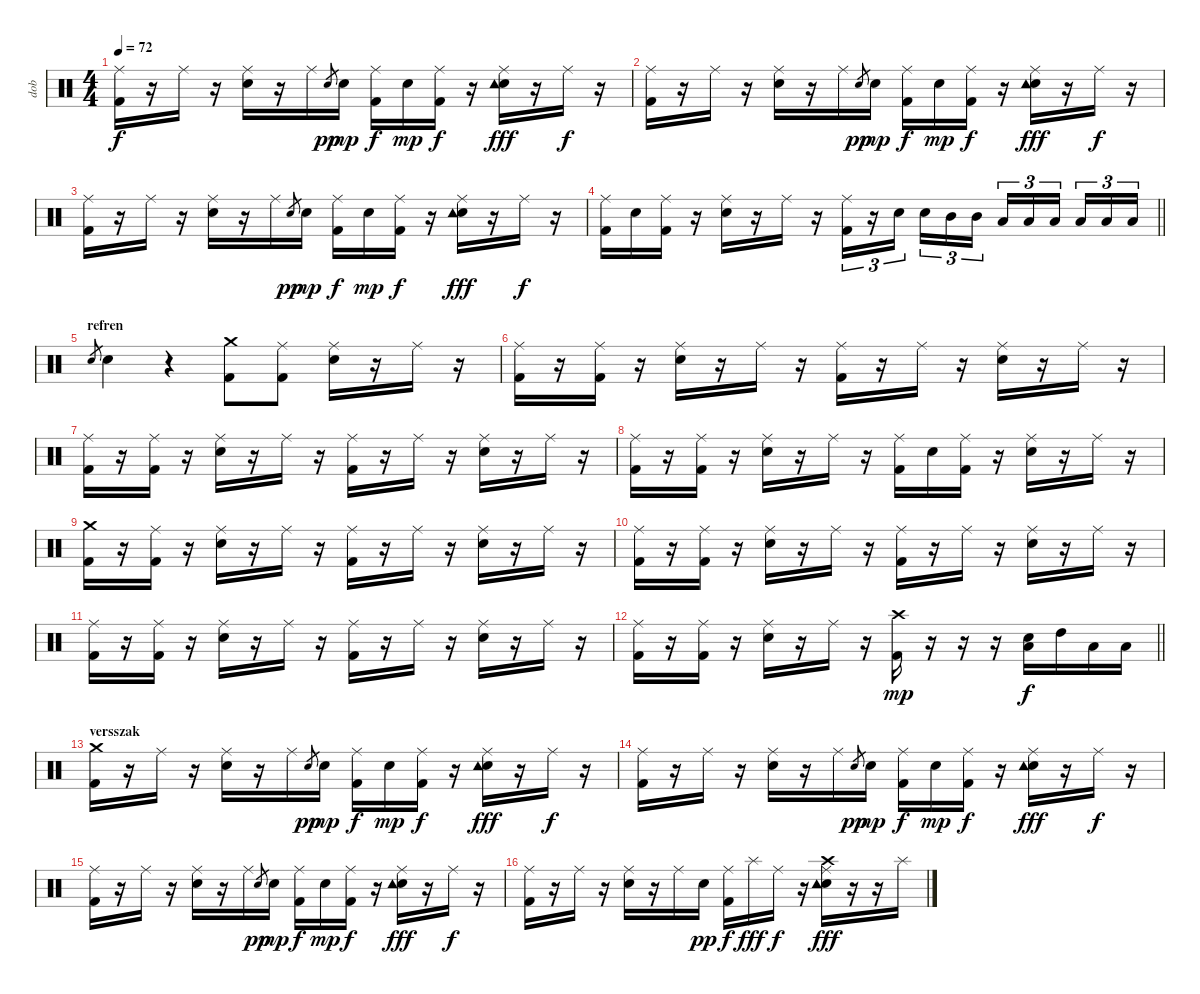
\track ("dob" "dob") {instrument percussion}
\staff {score}
\articulation defaults
\ts (4 4)
\tempo 72
\clef neutral
\ks c
("Kick (hit) 2" "Ride (middle)").16{dy f} r.16 "Ride (middle)".16 r.16 ("Ride (middle)" "Snare (hit) 2").16 r.16 "Ride (middle)".16 "Snare (hit) 2".8{gr dy pp} "Snare (hit) 2".16{dy mp} ("Ride (middle)" "Kick (hit) 2").16{dy f} "Snare (hit) 2".16{dy mp} ("Ride (middle)" "Kick (hit) 2").16{dy f} r.16 ("Ride (middle)" "Snare (hit) 2" "Tambourine (hit)").16{dy fff} r.16 "Ride (middle)".16{dy f} r.16 |
("Kick (hit) 2" "Ride (middle)").16 r.16 "Ride (middle)".16 r.16 ("Ride (middle)" "Snare (hit) 2").16 r.16 "Ride (middle)".16 "Snare (hit) 2".8{gr dy pp} "Snare (hit) 2".16{dy mp} ("Ride (middle)" "Kick (hit) 2").16{dy f} "Snare (hit) 2".16{dy mp} ("Ride (middle)" "Kick (hit) 2").16{dy f} r.16 ("Ride (middle)" "Snare (hit) 2" "Tambourine (hit)").16{dy fff} r.16 "Ride (middle)".16{dy f} r.16 |
("Kick (hit) 2" "Ride (middle)").16 r.16 "Ride (middle)".16 r.16 ("Ride (middle)" "Snare (hit) 2").16 r.16 "Ride (middle)".16 "Snare (hit) 2".8{gr dy pp} "Snare (hit) 2".16{dy mp} ("Ride (middle)" "Kick (hit) 2").16{dy f} "Snare (hit) 2".16{dy mp} ("Ride (middle)" "Kick (hit) 2").16{dy f} r.16 ("Ride (middle)" "Snare (hit) 2" "Tambourine (hit)").16{dy fff} r.16 "Ride (middle)".16{dy f} r.16 |
\barLineRight lightlight
("Kick (hit) 2" "Ride (middle)").16 "Snare (hit) 2".16 ("Ride (middle)" "Kick (hit) 2").16 r.16 ("Ride (middle)" "Snare (hit) 2").16 r.16 "Ride (middle)".16 r.16 ("Ride (middle)" "Kick (hit) 2").16{tu (3 2)} r.16{tu (3 2)} "Snare (hit) 2".16{tu (3 2) beam splitsecondary} "Snare (hit) 2".16{tu (3 2)} "Mid Tom (hit)".16{tu (3 2)} "Mid Tom (hit)".16{tu (3 2)} "Low Tom (hit)".16{tu (3 2)} "Low Floor Tom (hit)".16{tu (3 2)} "Low Floor Tom (hit)".16{tu (3 2) beam splitsecondary} "Low Floor Tom (hit)".16{tu (3 2)} "Low Floor Tom (hit)".16{tu (3 2)} "Low Floor Tom (hit)".16{tu (3 2)} |
\section ("" "refren")
"Snare (hit) 2".8{gr} "Snare (hit) 2".4 r.4 ("Kick (hit) 2" "Crash medium (hit)").8 ("Kick (hit) 2" "Ride (middle)").8 ("Snare (hit) 2" "Ride (middle)").16 r.16 "Ride (middle)".16 r.16 |
("Kick (hit) 2" "Ride (middle)").16 r.16 ("Ride (middle)" "Kick (hit) 2").16 r.16 ("Snare (hit) 2" "Ride (middle)").16 r.16 "Ride (middle)".16 r.16 ("Kick (hit) 2" "Ride (middle)").16 r.16 "Ride (middle)".16 r.16 ("Snare (hit) 2" "Ride (middle)").16 r.16 "Ride (middle)".16 r.16 |
("Kick (hit) 2" "Ride (middle)").16 r.16 ("Ride (middle)" "Kick (hit) 2").16 r.16 ("Snare (hit) 2" "Ride (middle)").16 r.16 "Ride (middle)".16 r.16 ("Kick (hit) 2" "Ride (middle)").16 r.16 "Ride (middle)".16 r.16 ("Snare (hit) 2" "Ride (middle)").16 r.16 "Ride (middle)".16 r.16 |
("Kick (hit) 2" "Ride (middle)").16 r.16 ("Ride (middle)" "Kick (hit) 2").16 r.16 ("Snare (hit) 2" "Ride (middle)").16 r.16 "Ride (middle)".16 r.16 ("Ride (middle)" "Kick (hit) 2").16 "Snare (hit) 2".16 ("Kick (hit) 2" "Ride (middle)").16 r.16 ("Snare (hit) 2" "Ride (middle)").16 r.16 "Ride (middle)".16 r.16 |
("Kick (hit) 2" "Crash medium (hit)").16 r.16 ("Ride (middle)" "Kick (hit) 2").16 r.16 ("Snare (hit) 2" "Ride (middle)").16 r.16 "Ride (middle)".16 r.16 ("Kick (hit) 2" "Ride (middle)").16 r.16 "Ride (middle)".16 r.16 ("Snare (hit) 2" "Ride (middle)").16 r.16 "Ride (middle)".16 r.16 |
("Kick (hit) 2" "Ride (middle)").16 r.16 ("Ride (middle)" "Kick (hit) 2").16 r.16 ("Snare (hit) 2" "Ride (middle)").16 r.16 "Ride (middle)".16 r.16 ("Kick (hit) 2" "Ride (middle)").16 r.16 "Ride (middle)".16 r.16 ("Snare (hit) 2" "Ride (middle)").16 r.16 "Ride (middle)".16 r.16 |
("Kick (hit) 2" "Ride (middle)").16 r.16 ("Ride (middle)" "Kick (hit) 2").16 r.16 ("Snare (hit) 2" "Ride (middle)").16 r.16 "Ride (middle)".16 r.16 ("Kick (hit) 2" "Ride (middle)").16 r.16 "Ride (middle)".16 r.16 ("Snare (hit) 2" "Ride (middle)").16 r.16 "Ride (middle)".16 r.16 |
\barLineRight lightlight
("Kick (hit) 2" "Ride (middle)").16 r.16 ("Ride (middle)" "Kick (hit) 2").16 r.16 ("Snare (hit) 2" "Ride (middle)").16 r.16 "Ride (middle)".16 r.16 ("Kick (hit) 2" "Crash high (hit)").16{dy mp} r.16 r.16 r.16 ("Snare (hit) 2" "Low Floor Tom (hit)").16{dy f} "High Tom (hit)".16 "Low Tom (hit)".16 "Low Floor Tom (hit)".16 |
\section ("" "versszak")
("Kick (hit) 2" "Crash medium (hit)").16 r.16 "Ride (middle)".16 r.16 ("Ride (middle)" "Snare (hit) 2").16 r.16 "Ride (middle)".16 "Snare (hit) 2".8{gr dy pp} "Snare (hit) 2".16{dy mp} ("Ride (middle)" "Kick (hit) 2").16{dy f} "Snare (hit) 2".16{dy mp} ("Ride (middle)" "Kick (hit) 2").16{dy f} r.16 ("Ride (middle)" "Snare (hit) 2" "Tambourine (hit)").16{dy fff} r.16 "Ride (middle)".16{dy f} r.16 |
("Kick (hit) 2" "Ride (middle)").16 r.16 "Ride (middle)".16 r.16 ("Ride (middle)" "Snare (hit) 2").16 r.16 "Ride (middle)".16 "Snare (hit) 2".8{gr dy pp} "Snare (hit) 2".16{dy mp} ("Ride (middle)" "Kick (hit) 2").16{dy f} "Snare (hit) 2".16{dy mp} ("Ride (middle)" "Kick (hit) 2").16{dy f} r.16 ("Ride (middle)" "Snare (hit) 2" "Tambourine (hit)").16{dy fff} r.16 "Ride (middle)".16{dy f} r.16 |
("Kick (hit) 2" "Ride (middle)").16 r.16 "Ride (middle)".16 r.16 ("Ride (middle)" "Snare (hit) 2").16 r.16 "Ride (middle)".16 "Snare (hit) 2".8{gr dy pp} "Snare (hit) 2".16{dy mp} ("Ride (middle)" "Kick (hit) 2").16{dy f} "Snare (hit) 2".16{dy mp} ("Ride (middle)" "Kick (hit) 2").16{dy f} r.16 ("Ride (middle)" "Snare (hit) 2" "Tambourine (hit)").16{dy fff} r.16 "Ride (middle)".16{dy f} r.16 |
("Kick (hit) 2" "Ride (middle)").16 r.16 "Ride (middle)".16 r.16 ("Ride (middle)" "Snare (hit) 2").16 r.16 "Ride (middle)".16 "Snare (hit) 2".16{dy pp} ("Ride (middle)" "Kick (hit) 2").16{dy f} "Splash (hit)".16{dy fff} "Ride (middle)".16{dy f} r.16 ("Ride (middle)" "Snare (hit) 2" "Tambourine (hit)" "Crash high (hit)").16{dy fff} r.16 r.16 "Splash (hit)".16
